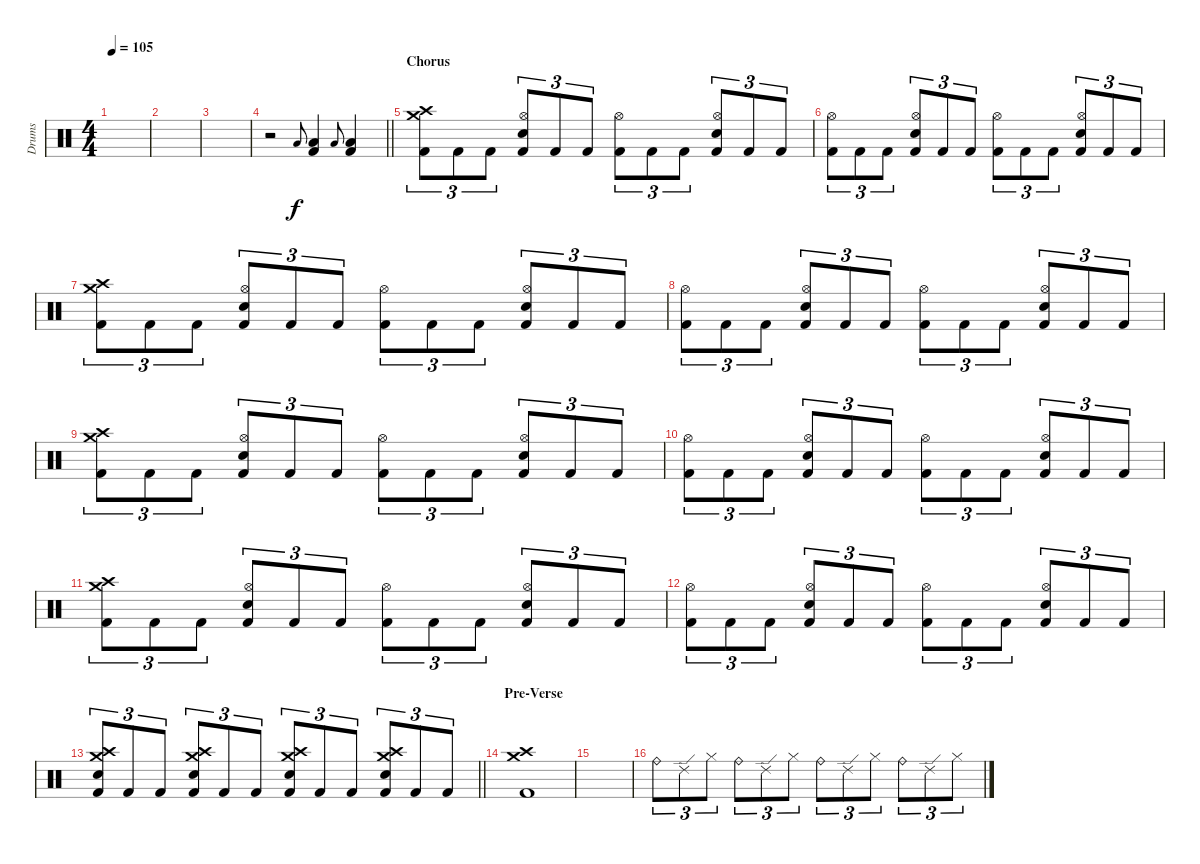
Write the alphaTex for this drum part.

\track ("Drums" "Drums") {instrument percussion}
\staff {score}
\articulation defaults
\ts (4 4)
\tempo 105
\clef neutral
\ks c
|
|
|
\barLineRight lightlight
r.2 "Low Floor Tom (hit)".8{gr onbeat} ("Low Floor Tom (hit)" "Kick (hit) 2").4 "Low Floor Tom (hit)".8{gr onbeat} ("Low Floor Tom (hit)" "Kick (hit) 2").4 |
\section ("" "Chorus")
("Crash high (hit)" "Crash medium (hit)" "Kick (hit) 2").8{tu (3 2)} "Kick (hit) 2".8{tu (3 2)} "Kick (hit) 2".8{tu (3 2)} ("Hi-Hat (open)" "Electric Snare (hit)" "Kick (hit) 2").8{tu (3 2)} "Kick (hit) 2".8{tu (3 2)} "Kick (hit) 2".8{tu (3 2)} ("Hi-Hat (open)" "Kick (hit) 2").8{tu (3 2)} "Kick (hit) 2".8{tu (3 2)} "Kick (hit) 2".8{tu (3 2)} ("Hi-Hat (open)" "Electric Snare (hit)" "Kick (hit) 2").8{tu (3 2)} "Kick (hit) 2".8{tu (3 2)} "Kick (hit) 2".8{tu (3 2)} |
("Hi-Hat (open)" "Kick (hit) 2").8{tu (3 2)} "Kick (hit) 2".8{tu (3 2)} "Kick (hit) 2".8{tu (3 2)} ("Hi-Hat (open)" "Electric Snare (hit)" "Kick (hit) 2").8{tu (3 2)} "Kick (hit) 2".8{tu (3 2)} "Kick (hit) 2".8{tu (3 2)} ("Hi-Hat (open)" "Kick (hit) 2").8{tu (3 2)} "Kick (hit) 2".8{tu (3 2)} "Kick (hit) 2".8{tu (3 2)} ("Hi-Hat (open)" "Electric Snare (hit)" "Kick (hit) 2").8{tu (3 2)} "Kick (hit) 2".8{tu (3 2)} "Kick (hit) 2".8{tu (3 2)} |
("Crash high (hit)" "Crash medium (hit)" "Kick (hit) 2").8{tu (3 2)} "Kick (hit) 2".8{tu (3 2)} "Kick (hit) 2".8{tu (3 2)} ("Hi-Hat (open)" "Electric Snare (hit)" "Kick (hit) 2").8{tu (3 2)} "Kick (hit) 2".8{tu (3 2)} "Kick (hit) 2".8{tu (3 2)} ("Hi-Hat (open)" "Kick (hit) 2").8{tu (3 2)} "Kick (hit) 2".8{tu (3 2)} "Kick (hit) 2".8{tu (3 2)} ("Hi-Hat (open)" "Electric Snare (hit)" "Kick (hit) 2").8{tu (3 2)} "Kick (hit) 2".8{tu (3 2)} "Kick (hit) 2".8{tu (3 2)} |
("Hi-Hat (open)" "Kick (hit) 2").8{tu (3 2)} "Kick (hit) 2".8{tu (3 2)} "Kick (hit) 2".8{tu (3 2)} ("Hi-Hat (open)" "Electric Snare (hit)" "Kick (hit) 2").8{tu (3 2)} "Kick (hit) 2".8{tu (3 2)} "Kick (hit) 2".8{tu (3 2)} ("Hi-Hat (open)" "Kick (hit) 2").8{tu (3 2)} "Kick (hit) 2".8{tu (3 2)} "Kick (hit) 2".8{tu (3 2)} ("Hi-Hat (open)" "Electric Snare (hit)" "Kick (hit) 2").8{tu (3 2)} "Kick (hit) 2".8{tu (3 2)} "Kick (hit) 2".8{tu (3 2)} |
("Crash high (hit)" "Crash medium (hit)" "Kick (hit) 2").8{tu (3 2)} "Kick (hit) 2".8{tu (3 2)} "Kick (hit) 2".8{tu (3 2)} ("Hi-Hat (open)" "Electric Snare (hit)" "Kick (hit) 2").8{tu (3 2)} "Kick (hit) 2".8{tu (3 2)} "Kick (hit) 2".8{tu (3 2)} ("Hi-Hat (open)" "Kick (hit) 2").8{tu (3 2)} "Kick (hit) 2".8{tu (3 2)} "Kick (hit) 2".8{tu (3 2)} ("Hi-Hat (open)" "Electric Snare (hit)" "Kick (hit) 2").8{tu (3 2)} "Kick (hit) 2".8{tu (3 2)} "Kick (hit) 2".8{tu (3 2)} |
("Hi-Hat (open)" "Kick (hit) 2").8{tu (3 2)} "Kick (hit) 2".8{tu (3 2)} "Kick (hit) 2".8{tu (3 2)} ("Hi-Hat (open)" "Electric Snare (hit)" "Kick (hit) 2").8{tu (3 2)} "Kick (hit) 2".8{tu (3 2)} "Kick (hit) 2".8{tu (3 2)} ("Hi-Hat (open)" "Kick (hit) 2").8{tu (3 2)} "Kick (hit) 2".8{tu (3 2)} "Kick (hit) 2".8{tu (3 2)} ("Hi-Hat (open)" "Electric Snare (hit)" "Kick (hit) 2").8{tu (3 2)} "Kick (hit) 2".8{tu (3 2)} "Kick (hit) 2".8{tu (3 2)} |
("Crash high (hit)" "Crash medium (hit)" "Kick (hit) 2").8{tu (3 2)} "Kick (hit) 2".8{tu (3 2)} "Kick (hit) 2".8{tu (3 2)} ("Hi-Hat (open)" "Electric Snare (hit)" "Kick (hit) 2").8{tu (3 2)} "Kick (hit) 2".8{tu (3 2)} "Kick (hit) 2".8{tu (3 2)} ("Hi-Hat (open)" "Kick (hit) 2").8{tu (3 2)} "Kick (hit) 2".8{tu (3 2)} "Kick (hit) 2".8{tu (3 2)} ("Hi-Hat (open)" "Electric Snare (hit)" "Kick (hit) 2").8{tu (3 2)} "Kick (hit) 2".8{tu (3 2)} "Kick (hit) 2".8{tu (3 2)} |
("Hi-Hat (open)" "Kick (hit) 2").8{tu (3 2)} "Kick (hit) 2".8{tu (3 2)} "Kick (hit) 2".8{tu (3 2)} ("Hi-Hat (open)" "Electric Snare (hit)" "Kick (hit) 2").8{tu (3 2)} "Kick (hit) 2".8{tu (3 2)} "Kick (hit) 2".8{tu (3 2)} ("Hi-Hat (open)" "Kick (hit) 2").8{tu (3 2)} "Kick (hit) 2".8{tu (3 2)} "Kick (hit) 2".8{tu (3 2)} ("Hi-Hat (open)" "Electric Snare (hit)" "Kick (hit) 2").8{tu (3 2)} "Kick (hit) 2".8{tu (3 2)} "Kick (hit) 2".8{tu (3 2)} |
\barLineRight lightlight
("Crash medium (hit)" "Crash high (hit)" "Electric Snare (hit)" "Kick (hit) 2").8{tu (3 2)} "Kick (hit) 2".8{tu (3 2)} "Kick (hit) 2".8{tu (3 2)} ("Crash high (hit)" "Crash medium (hit)" "Electric Snare (hit)" "Kick (hit) 2").8{tu (3 2)} "Kick (hit) 2".8{tu (3 2)} "Kick (hit) 2".8{tu (3 2)} ("Crash medium (hit)" "Crash high (hit)" "Electric Snare (hit)" "Kick (hit) 2").8{tu (3 2)} "Kick (hit) 2".8{tu (3 2)} "Kick (hit) 2".8{tu (3 2)} ("Crash high (hit)" "Crash medium (hit)" "Electric Snare (hit)" "Kick (hit) 2").8{tu (3 2)} "Kick (hit) 2".8{tu (3 2)} "Kick (hit) 2".8{tu (3 2)} |
\section ("" "Pre-Verse")
("Crash high (hit)" "Crash medium (hit)" "Kick (hit) 2").1 |
|
"Ride (bell)".8{tu (3 2)} "Ride (edge) 2".8{tu (3 2)} "Hi-Hat (closed)".8{tu (3 2)} "Ride (bell)".8{tu (3 2)} "Ride (edge) 2".8{tu (3 2)} "Hi-Hat (closed)".8{tu (3 2)} "Ride (bell)".8{tu (3 2)} "Ride (edge) 2".8{tu (3 2)} "Hi-Hat (closed)".8{tu (3 2)} "Ride (bell)".8{tu (3 2)} "Ride (edge) 2".8{tu (3 2)} "Hi-Hat (closed)".8{tu (3 2)}
